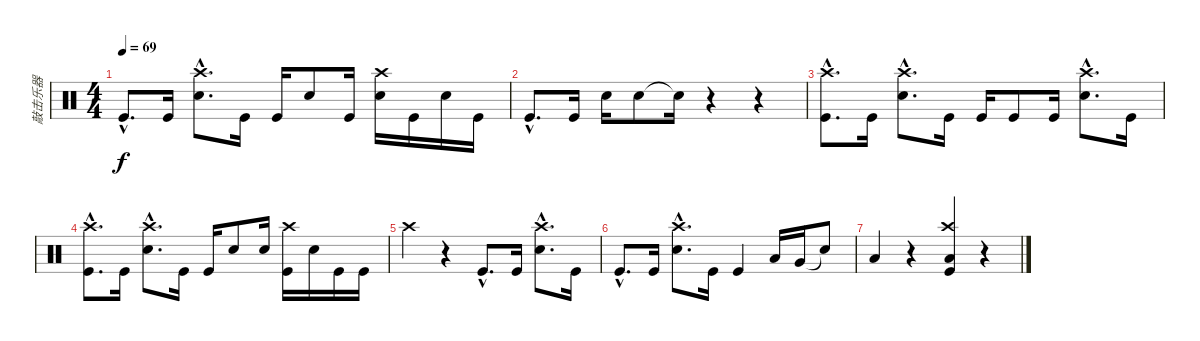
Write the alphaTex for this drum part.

\track ("敲击乐器" "敲击乐器") {instrument percussion}
\staff {score}
\articulation defaults
\ts (4 4)
\tempo 69
\clef neutral
\ks c "Kick (hit)"{hac}.8{d dy f} "Kick (hit)".16
("Crash high (hit)"{hac} "Metronome (bell)"{hac}).8{d} "Kick (hit)".16 "Kick (hit)".16 "Metronome (bell)".8 "Kick (hit)".16 ("Crash high (hit)" "Metronome (bell)").16 "Kick (hit)".16 "Metronome (bell)".16 "Kick (hit)".16 |
"Kick (hit)"{hac}.8{d} "Kick (hit)".16 "Metronome (bell)".16 "Metronome (bell)".8 "Snare (hit)"{t}.16 r.4 r.4 |
("Crash high (hit)"{hac} "Kick (hit)"{hac}).8{d} "Kick (hit)".16 ("Crash high (hit)"{hac} "Metronome (bell)"{hac}).8{d} "Kick (hit)".16 "Kick (hit)".16 "Kick (hit)".8 "Kick (hit)".16 ("Crash high (hit)"{hac} "Metronome (bell)"{hac}).8{d} "Kick (hit)".16 |
("Crash high (hit)"{hac} "Kick (hit)"{hac}).8{d} "Kick (hit)".16 ("Crash high (hit)"{hac} "Metronome (bell)"{hac}).8{d} "Kick (hit)".16 "Kick (hit)".16 "Metronome (bell)".8 "Metronome (bell)".16 ("Crash high (hit)" "Kick (hit)").16 "Metronome (bell)".16 "Kick (hit)".16 "Kick (hit)".16 |
"Crash high (hit)".4 r.4 "Kick (hit)"{hac}.8{d} "Kick (hit)".16 ("Crash high (hit)"{hac} "Metronome (bell)"{hac}).8{d} "Kick (hit)".16 |
"Kick (hit)"{hac}.8{d} "Kick (hit)".16 ("Crash high (hit)"{hac} "Metronome (bell)"{hac}).8{d} "Kick (hit)".16 "Kick (hit)".4 "Low Tom (hit)".16 "Very Low Tom (hit)".16 "Snare (hit)"{t}.8 |
"Low Floor Tom (hit)".4 r.4 ("Crash high (hit)" "Low Floor Tom (hit)" "Kick (hit)").4 r.4
